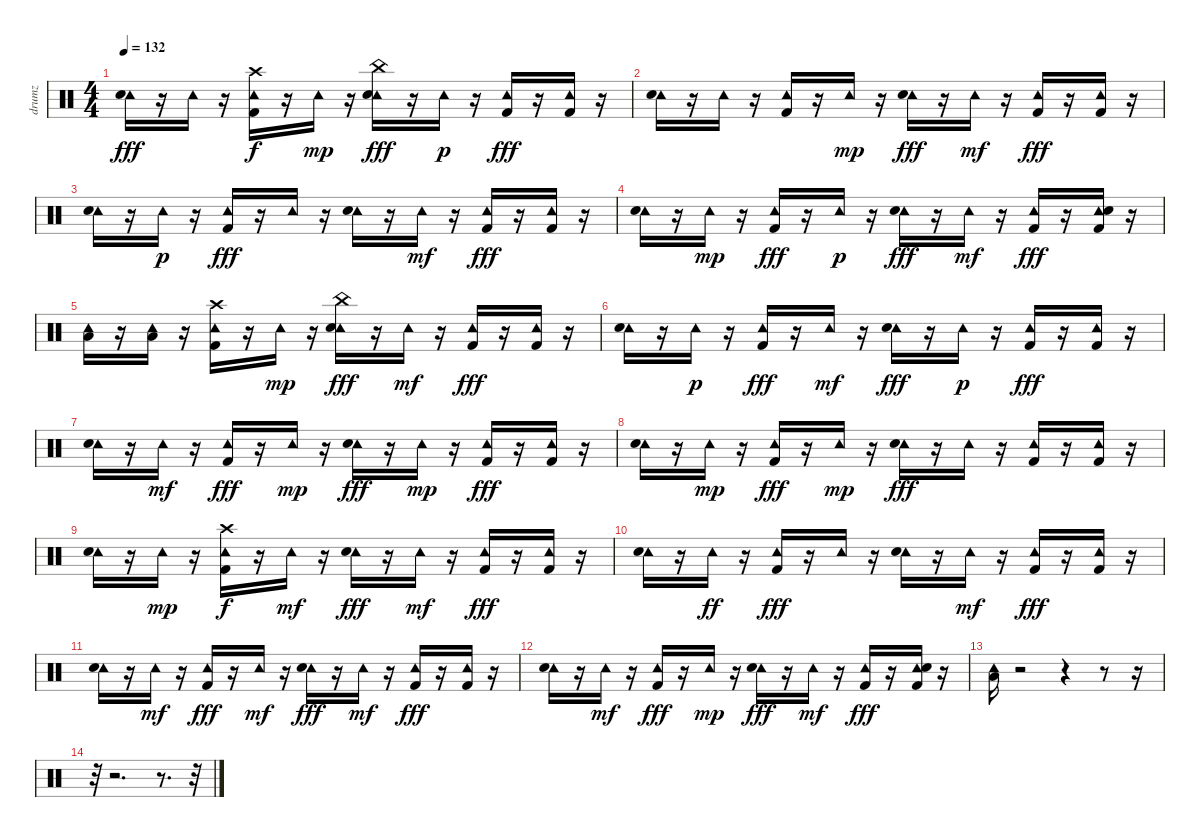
\track ("drumz" "drumz") {instrument percussion}
\staff {score}
\articulation defaults
\ts (4 4)
\tempo 132
\clef neutral
\ks c
("Tambourine (hit)" "Snare (hit) 2").16{dy fff} r.16 "Tambourine (hit)".16 r.16 ("Tambourine (hit)" "Kick (hit) 2" "Crash high (hit)").16{dy f} r.16 "Tambourine (hit)".16{dy mp} r.16 ("Tambourine (hit)" "Snare (hit) 2" "China (hit)").16{dy fff} r.16 "Tambourine (hit)".16{dy p} r.16 ("Tambourine (hit)" "Kick (hit) 2").16{dy fff} r.16 ("Tambourine (hit)" "Kick (hit) 2").16 r.16 |
("Tambourine (hit)" "Snare (hit) 2").16 r.16 "Tambourine (hit)".16 r.16 ("Tambourine (hit)" "Kick (hit) 2").16 r.16 "Tambourine (hit)".16{dy mp} r.16 ("Tambourine (hit)" "Snare (hit) 2").16{dy fff} r.16 "Tambourine (hit)".16{dy mf} r.16 ("Tambourine (hit)" "Kick (hit) 2").16{dy fff} r.16 ("Tambourine (hit)" "Kick (hit) 2").16 r.16 |
("Tambourine (hit)" "Snare (hit) 2").16 r.16 "Tambourine (hit)".16{dy p} r.16 ("Tambourine (hit)" "Kick (hit) 2").16{dy fff} r.16 "Tambourine (hit)".16 r.16 ("Tambourine (hit)" "Snare (hit) 2").16 r.16 "Tambourine (hit)".16{dy mf} r.16 ("Tambourine (hit)" "Kick (hit) 2").16{dy fff} r.16 ("Tambourine (hit)" "Kick (hit) 2").16 r.16 |
("Tambourine (hit)" "Snare (hit) 2").16 r.16 "Tambourine (hit)".16{dy mp} r.16 ("Tambourine (hit)" "Kick (hit) 2").16{dy fff} r.16 "Tambourine (hit)".16{dy p} r.16 ("Tambourine (hit)" "Snare (hit) 2").16{dy fff} r.16 "Tambourine (hit)".16{dy mf} r.16 ("Tambourine (hit)" "Kick (hit) 2").16{dy fff} r.16 ("Tambourine (hit)" "Snare (hit) 2" "Kick (hit) 2").16 r.16 |
("Tambourine (hit)" "Low Tom (hit)").16 r.16 ("Tambourine (hit)" "Low Floor Tom (hit)").16 r.16 ("Tambourine (hit)" "Crash high (hit)" "Kick (hit) 2").16 r.16 "Tambourine (hit)".16{dy mp} r.16 ("Tambourine (hit)" "China (hit)" "Snare (hit) 2").16{dy fff} r.16 "Tambourine (hit)".16{dy mf} r.16 ("Tambourine (hit)" "Kick (hit) 2").16{dy fff} r.16 ("Tambourine (hit)" "Kick (hit) 2").16 r.16 |
("Tambourine (hit)" "Snare (hit) 2").16 r.16 "Tambourine (hit)".16{dy p} r.16 ("Tambourine (hit)" "Kick (hit) 2").16{dy fff} r.16 "Tambourine (hit)".16{dy mf} r.16 ("Tambourine (hit)" "Snare (hit) 2").16{dy fff} r.16 "Tambourine (hit)".16{dy p} r.16 ("Tambourine (hit)" "Kick (hit) 2").16{dy fff} r.16 ("Tambourine (hit)" "Kick (hit) 2").16 r.16 |
("Tambourine (hit)" "Snare (hit) 2").16 r.16 "Tambourine (hit)".16{dy mf} r.16 ("Tambourine (hit)" "Kick (hit) 2").16{dy fff} r.16 "Tambourine (hit)".16{dy mp} r.16 ("Tambourine (hit)" "Snare (hit) 2").16{dy fff} r.16 "Tambourine (hit)".16{dy mp} r.16 ("Tambourine (hit)" "Kick (hit) 2").16{dy fff} r.16 ("Tambourine (hit)" "Kick (hit) 2").16 r.16 |
("Tambourine (hit)" "Snare (hit) 2").16 r.16 "Tambourine (hit)".16{dy mp} r.16 ("Tambourine (hit)" "Kick (hit) 2").16{dy fff} r.16 "Tambourine (hit)".16{dy mp} r.16 ("Tambourine (hit)" "Snare (hit) 2").16{dy fff} r.16 "Tambourine (hit)".16 r.16 ("Tambourine (hit)" "Kick (hit) 2").16 r.16 ("Tambourine (hit)" "Kick (hit) 2").16 r.16 |
("Tambourine (hit)" "Snare (hit) 2").16 r.16 "Tambourine (hit)".16{dy mp} r.16 ("Tambourine (hit)" "Kick (hit) 2" "Crash high (hit)").16{dy f} r.16 "Tambourine (hit)".16{dy mf} r.16 ("Tambourine (hit)" "Snare (hit) 2").16{dy fff} r.16 "Tambourine (hit)".16{dy mf} r.16 ("Tambourine (hit)" "Kick (hit) 2").16{dy fff} r.16 ("Tambourine (hit)" "Kick (hit) 2").16 r.16 |
("Tambourine (hit)" "Snare (hit) 2").16 r.16 "Tambourine (hit)".16{dy ff} r.16 ("Tambourine (hit)" "Kick (hit) 2").16{dy fff} r.16 "Tambourine (hit)".16 r.16 ("Tambourine (hit)" "Snare (hit) 2").16 r.16 "Tambourine (hit)".16{dy mf} r.16 ("Tambourine (hit)" "Kick (hit) 2").16{dy fff} r.16 ("Tambourine (hit)" "Kick (hit) 2").16 r.16 |
("Tambourine (hit)" "Snare (hit) 2").16 r.16 "Tambourine (hit)".16{dy mf} r.16 ("Tambourine (hit)" "Kick (hit) 2").16{dy fff} r.16 "Tambourine (hit)".16{dy mf} r.16 ("Tambourine (hit)" "Snare (hit) 2").16{dy fff} r.16 "Tambourine (hit)".16{dy mf} r.16 ("Tambourine (hit)" "Kick (hit) 2").16{dy fff} r.16 ("Tambourine (hit)" "Kick (hit) 2").16 r.16 |
("Tambourine (hit)" "Snare (hit) 2").16 r.16 "Tambourine (hit)".16{dy mf} r.16 ("Tambourine (hit)" "Kick (hit) 2").16{dy fff} r.16 "Tambourine (hit)".16{dy mp} r.16 ("Tambourine (hit)" "Snare (hit) 2").16{dy fff} r.16 "Tambourine (hit)".16{dy mf} r.16 ("Tambourine (hit)" "Kick (hit) 2").16{dy fff} r.16 ("Tambourine (hit)" "Snare (hit) 2" "Kick (hit) 2").16 r.16 |
("Tambourine (hit)" "Low Tom (hit)").16 r.2 r.4 r.8 r.16 |
r.32 r.2{d} r.8{d} r.32
